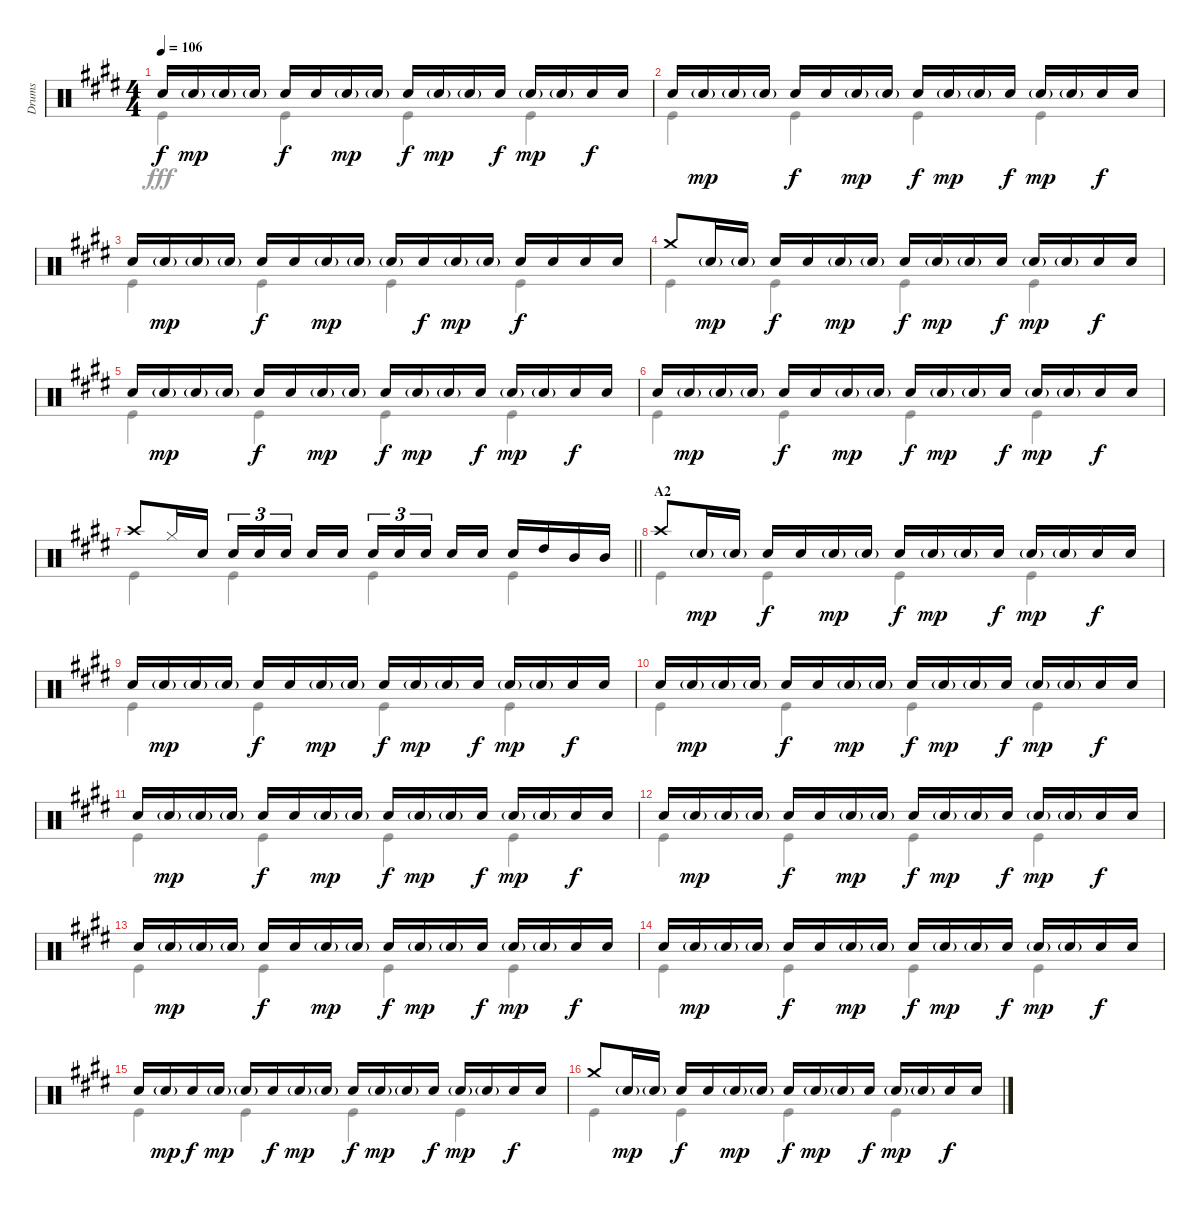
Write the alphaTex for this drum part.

\track ("Drums" "Drums") {instrument percussion}
\staff {score}
\articulation defaults
\voice
\ts (4 4)
\tempo 106
\clef neutral
\ks e "Snare (hit) 2".16{dy f} "Snare (hit) 2"{g}.16{dy mp} "Snare (hit) 2"{g}.16 "Snare (hit) 2"{g}.16 "Snare (hit) 2".16{dy f} "Snare (hit) 2".16 "Snare (hit) 2"{g}.16{dy mp} "Snare (hit) 2"{g}.16 "Snare (hit) 2".16{dy f} "Snare (hit) 2"{g}.16{dy mp} "Snare (hit) 2"{g}.16 "Snare (hit) 2".16{dy f} "Snare (hit) 2"{g}.16{dy mp} "Snare (hit) 2"{g}.16 "Snare (hit) 2".16{dy f} "Snare (hit) 2".16
|
"Snare (hit) 2".16 "Snare (hit) 2"{g}.16{dy mp} "Snare (hit) 2"{g}.16 "Snare (hit) 2"{g}.16 "Snare (hit) 2".16{dy f} "Snare (hit) 2".16 "Snare (hit) 2"{g}.16{dy mp} "Snare (hit) 2"{g}.16 "Snare (hit) 2".16{dy f} "Snare (hit) 2"{g}.16{dy mp} "Snare (hit) 2"{g}.16 "Snare (hit) 2".16{dy f} "Snare (hit) 2"{g}.16{dy mp} "Snare (hit) 2"{g}.16 "Snare (hit) 2".16{dy f} "Snare (hit) 2".16 |
"Snare (hit) 2".16 "Snare (hit) 2"{g}.16{dy mp} "Snare (hit) 2"{g}.16 "Snare (hit) 2"{g}.16 "Snare (hit) 2".16{dy f} "Snare (hit) 2".16 "Snare (hit) 2"{g}.16{dy mp} "Snare (hit) 2"{g}.16 "Snare (hit) 2"{g}.16 "Snare (hit) 2".16{dy f} "Snare (hit) 2"{g}.16{dy mp} "Snare (hit) 2"{g}.16 "Snare (hit) 2".16{dy f} "Snare (hit) 2".16 "Snare (hit) 2".16 "Snare (hit) 2".16 |
"Crash medium (hit)".8 "Snare (hit) 2"{g}.16{dy mp} "Snare (hit) 2"{g}.16 "Snare (hit) 2".16{dy f} "Snare (hit) 2".16 "Snare (hit) 2"{g}.16{dy mp} "Snare (hit) 2"{g}.16 "Snare (hit) 2".16{dy f} "Snare (hit) 2"{g}.16{dy mp} "Snare (hit) 2"{g}.16 "Snare (hit) 2".16{dy f} "Snare (hit) 2"{g}.16{dy mp} "Snare (hit) 2"{g}.16 "Snare (hit) 2".16{dy f} "Snare (hit) 2".16 |
"Snare (hit) 2".16 "Snare (hit) 2"{g}.16{dy mp} "Snare (hit) 2"{g}.16 "Snare (hit) 2"{g}.16 "Snare (hit) 2".16{dy f} "Snare (hit) 2".16 "Snare (hit) 2"{g}.16{dy mp} "Snare (hit) 2"{g}.16 "Snare (hit) 2".16{dy f} "Snare (hit) 2"{g}.16{dy mp} "Snare (hit) 2"{g}.16 "Snare (hit) 2".16{dy f} "Snare (hit) 2"{g}.16{dy mp} "Snare (hit) 2"{g}.16 "Snare (hit) 2".16{dy f} "Snare (hit) 2".16 |
"Snare (hit) 2".16 "Snare (hit) 2"{g}.16{dy mp} "Snare (hit) 2"{g}.16 "Snare (hit) 2"{g}.16 "Snare (hit) 2".16{dy f} "Snare (hit) 2".16 "Snare (hit) 2"{g}.16{dy mp} "Snare (hit) 2"{g}.16 "Snare (hit) 2".16{dy f} "Snare (hit) 2"{g}.16{dy mp} "Snare (hit) 2"{g}.16 "Snare (hit) 2".16{dy f} "Snare (hit) 2"{g}.16{dy mp} "Snare (hit) 2"{g}.16 "Snare (hit) 2".16{dy f} "Snare (hit) 2".16 |
\barLineRight lightlight "Crash high (hit)".8 "Hi-Hat (closed)".16 "Snare (hit) 2".16 "Snare (hit) 2".16{tu (3 2)} "Snare (hit) 2".16{tu (3 2)} "Snare (hit) 2".16{tu (3 2) beam splitsecondary} "Snare (hit) 2".16 "Snare (hit) 2".16 "Snare (hit) 2".16{tu (3 2)} "Snare (hit) 2".16{tu (3 2)} "Snare (hit) 2".16{tu (3 2) beam splitsecondary} "Snare (hit) 2".16 "Snare (hit) 2".16 "Snare (hit) 2".16 "High Tom (hit)".16 "Mid Tom (hit)".16 "Mid Tom (hit)".16
|
\section ("" "A2")
"Crash high (hit)".8 "Snare (hit) 2"{g}.16{dy mp} "Snare (hit) 2"{g}.16 "Snare (hit) 2".16{dy f} "Snare (hit) 2".16 "Snare (hit) 2"{g}.16{dy mp} "Snare (hit) 2"{g}.16 "Snare (hit) 2".16{dy f} "Snare (hit) 2"{g}.16{dy mp} "Snare (hit) 2"{g}.16 "Snare (hit) 2".16{dy f} "Snare (hit) 2"{g}.16{dy mp} "Snare (hit) 2"{g}.16 "Snare (hit) 2".16{dy f} "Snare (hit) 2".16 |
"Snare (hit) 2".16 "Snare (hit) 2"{g}.16{dy mp} "Snare (hit) 2"{g}.16 "Snare (hit) 2"{g}.16 "Snare (hit) 2".16{dy f} "Snare (hit) 2".16 "Snare (hit) 2"{g}.16{dy mp} "Snare (hit) 2"{g}.16 "Snare (hit) 2".16{dy f} "Snare (hit) 2"{g}.16{dy mp} "Snare (hit) 2"{g}.16 "Snare (hit) 2".16{dy f} "Snare (hit) 2"{g}.16{dy mp} "Snare (hit) 2"{g}.16 "Snare (hit) 2".16{dy f} "Snare (hit) 2".16 |
"Snare (hit) 2".16 "Snare (hit) 2"{g}.16{dy mp} "Snare (hit) 2"{g}.16 "Snare (hit) 2"{g}.16 "Snare (hit) 2".16{dy f} "Snare (hit) 2".16 "Snare (hit) 2"{g}.16{dy mp} "Snare (hit) 2"{g}.16 "Snare (hit) 2".16{dy f} "Snare (hit) 2"{g}.16{dy mp} "Snare (hit) 2"{g}.16 "Snare (hit) 2".16{dy f} "Snare (hit) 2"{g}.16{dy mp} "Snare (hit) 2"{g}.16 "Snare (hit) 2".16{dy f} "Snare (hit) 2".16 |
"Snare (hit) 2".16 "Snare (hit) 2"{g}.16{dy mp} "Snare (hit) 2"{g}.16 "Snare (hit) 2"{g}.16 "Snare (hit) 2".16{dy f} "Snare (hit) 2".16 "Snare (hit) 2"{g}.16{dy mp} "Snare (hit) 2"{g}.16 "Snare (hit) 2".16{dy f} "Snare (hit) 2"{g}.16{dy mp} "Snare (hit) 2"{g}.16 "Snare (hit) 2".16{dy f} "Snare (hit) 2"{g}.16{dy mp} "Snare (hit) 2"{g}.16 "Snare (hit) 2".16{dy f} "Snare (hit) 2".16 |
"Snare (hit) 2".16 "Snare (hit) 2"{g}.16{dy mp} "Snare (hit) 2"{g}.16 "Snare (hit) 2"{g}.16 "Snare (hit) 2".16{dy f} "Snare (hit) 2".16 "Snare (hit) 2"{g}.16{dy mp} "Snare (hit) 2"{g}.16 "Snare (hit) 2".16{dy f} "Snare (hit) 2"{g}.16{dy mp} "Snare (hit) 2"{g}.16 "Snare (hit) 2".16{dy f} "Snare (hit) 2"{g}.16{dy mp} "Snare (hit) 2"{g}.16 "Snare (hit) 2".16{dy f} "Snare (hit) 2".16 |
"Snare (hit) 2".16 "Snare (hit) 2"{g}.16{dy mp} "Snare (hit) 2"{g}.16 "Snare (hit) 2"{g}.16 "Snare (hit) 2".16{dy f} "Snare (hit) 2".16 "Snare (hit) 2"{g}.16{dy mp} "Snare (hit) 2"{g}.16 "Snare (hit) 2".16{dy f} "Snare (hit) 2"{g}.16{dy mp} "Snare (hit) 2"{g}.16 "Snare (hit) 2".16{dy f} "Snare (hit) 2"{g}.16{dy mp} "Snare (hit) 2"{g}.16 "Snare (hit) 2".16{dy f} "Snare (hit) 2".16 |
"Snare (hit) 2".16 "Snare (hit) 2"{g}.16{dy mp} "Snare (hit) 2"{g}.16 "Snare (hit) 2"{g}.16 "Snare (hit) 2".16{dy f} "Snare (hit) 2".16 "Snare (hit) 2"{g}.16{dy mp} "Snare (hit) 2"{g}.16 "Snare (hit) 2".16{dy f} "Snare (hit) 2"{g}.16{dy mp} "Snare (hit) 2"{g}.16 "Snare (hit) 2".16{dy f} "Snare (hit) 2"{g}.16{dy mp} "Snare (hit) 2"{g}.16 "Snare (hit) 2".16{dy f} "Snare (hit) 2".16 |
"Snare (hit) 2".16 "Snare (hit) 2"{g}.16{dy mp} "Snare (hit) 2".16{dy f} "Snare (hit) 2"{g}.16{dy mp} "Snare (hit) 2"{g}.16 "Snare (hit) 2".16{dy f} "Snare (hit) 2"{g}.16{dy mp} "Snare (hit) 2"{g}.16 "Snare (hit) 2".16{dy f} "Snare (hit) 2"{g}.16{dy mp} "Snare (hit) 2"{g}.16 "Snare (hit) 2".16{dy f} "Snare (hit) 2"{g}.16{dy mp} "Snare (hit) 2"{g}.16 "Snare (hit) 2".16{dy f} "Snare (hit) 2".16 |
"Crash medium (hit)".8 "Snare (hit) 2"{g}.16{dy mp} "Snare (hit) 2"{g}.16 "Snare (hit) 2".16{dy f} "Snare (hit) 2".16 "Snare (hit) 2"{g}.16{dy mp} "Snare (hit) 2"{g}.16 "Snare (hit) 2".16{dy f} "Snare (hit) 2"{g}.16{dy mp} "Snare (hit) 2"{g}.16 "Snare (hit) 2".16{dy f} "Snare (hit) 2"{g}.16{dy mp} "Snare (hit) 2"{g}.16 "Snare (hit) 2".16{dy f} "Snare (hit) 2".16
\voice
\clef neutral
\ottava regular
\simile none
\ks e "Kick (hit)".4{dy fff} "Kick (hit)".4 "Kick (hit)".4 "Kick (hit)".4
|
"Kick (hit)".4 "Kick (hit)".4 "Kick (hit)".4 "Kick (hit)".4 |
"Kick (hit)".4 "Kick (hit)".4 "Kick (hit)".4 "Kick (hit)".4 |
"Kick (hit)".4 "Kick (hit)".4 "Kick (hit)".4 "Kick (hit)".4 |
"Kick (hit)".4 "Kick (hit)".4 "Kick (hit)".4 "Kick (hit)".4 |
"Kick (hit)".4 "Kick (hit)".4 "Kick (hit)".4 "Kick (hit)".4 |
\barLineRight lightlight "Kick (hit)".4 "Kick (hit)".4 "Kick (hit)".4 "Kick (hit)".4
|
"Kick (hit)".4 "Kick (hit)".4 "Kick (hit)".4 "Kick (hit)".4 |
"Kick (hit)".4 "Kick (hit)".4 "Kick (hit)".4 "Kick (hit)".4 |
"Kick (hit)".4 "Kick (hit)".4 "Kick (hit)".4 "Kick (hit)".4 |
"Kick (hit)".4 "Kick (hit)".4 "Kick (hit)".4 "Kick (hit)".4 |
"Kick (hit)".4 "Kick (hit)".4 "Kick (hit)".4 "Kick (hit)".4 |
"Kick (hit)".4 "Kick (hit)".4 "Kick (hit)".4 "Kick (hit)".4 |
"Kick (hit)".4 "Kick (hit)".4 "Kick (hit)".4 "Kick (hit)".4 |
"Kick (hit)".4 "Kick (hit)".4 "Kick (hit)".4 "Kick (hit)".4 |
"Kick (hit)".4 "Kick (hit)".4 "Kick (hit)".4 "Kick (hit)".4
